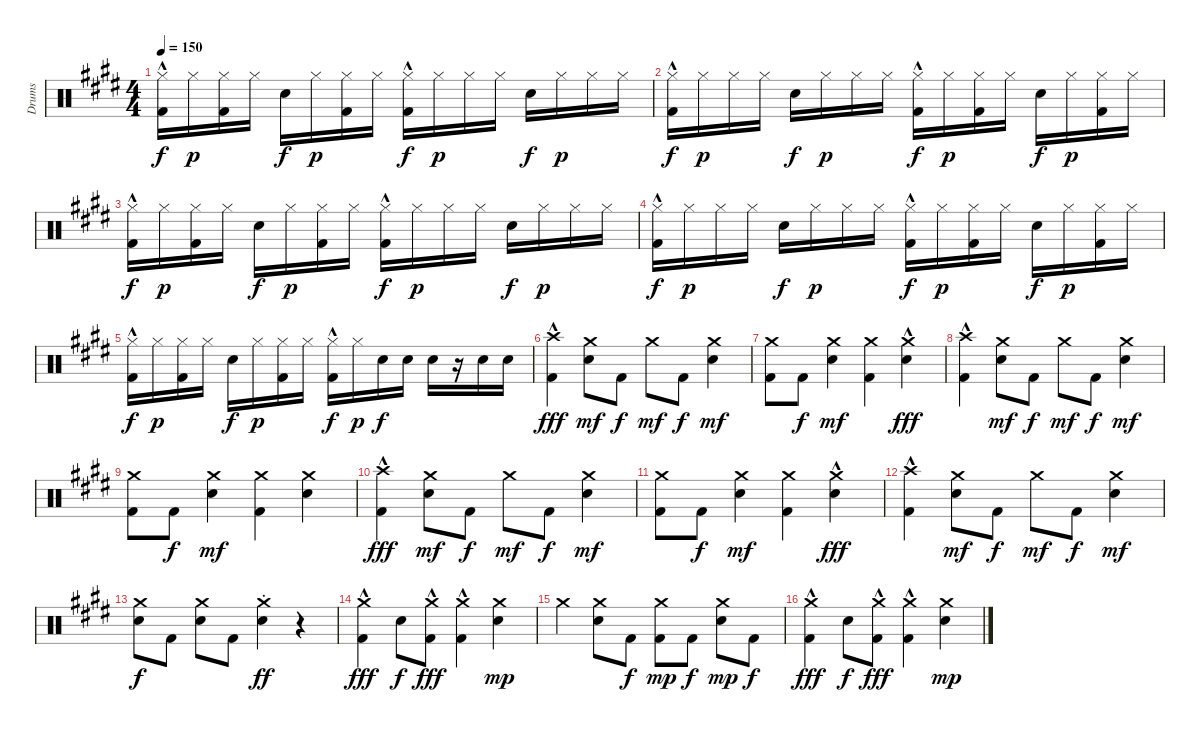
\track ("Drums" "Drums") {instrument percussion}
\staff {score}
\articulation defaults
\ts (4 4)
\tempo 150
\clef neutral
\ks e
("Hi-Hat (closed)"{hac} "Kick (hit) 2").16{dy f} "Hi-Hat (closed)".16{dy p} ("Hi-Hat (closed)" "Kick (hit) 2").16 "Hi-Hat (closed)".16 "Electric Snare (hit)".16{dy f} "Hi-Hat (closed)".16{dy p} ("Hi-Hat (closed)" "Kick (hit) 2").16 "Hi-Hat (closed)".16 ("Hi-Hat (closed)"{hac} "Kick (hit) 2").16{dy f} "Hi-Hat (closed)".16{dy p} "Hi-Hat (closed)".16 "Hi-Hat (closed)".16 "Electric Snare (hit)".16{dy f} "Hi-Hat (closed)".16{dy p} "Hi-Hat (closed)".16 "Hi-Hat (closed)".16 |
("Hi-Hat (closed)"{hac} "Kick (hit) 2").16{dy f} "Hi-Hat (closed)".16{dy p} "Hi-Hat (closed)".16 "Hi-Hat (closed)".16 "Electric Snare (hit)".16{dy f} "Hi-Hat (closed)".16{dy p} "Hi-Hat (closed)".16 "Hi-Hat (closed)".16 ("Hi-Hat (closed)"{hac} "Kick (hit) 2").16{dy f} "Hi-Hat (closed)".16{dy p} ("Hi-Hat (closed)" "Kick (hit) 2").16 "Hi-Hat (closed)".16 "Electric Snare (hit)".16{dy f} "Hi-Hat (closed)".16{dy p} ("Hi-Hat (closed)" "Kick (hit) 2").16 "Hi-Hat (closed)".16 |
("Hi-Hat (closed)"{hac} "Kick (hit) 2").16{dy f} "Hi-Hat (closed)".16{dy p} ("Hi-Hat (closed)" "Kick (hit) 2").16 "Hi-Hat (closed)".16 "Electric Snare (hit)".16{dy f} "Hi-Hat (closed)".16{dy p} ("Hi-Hat (closed)" "Kick (hit) 2").16 "Hi-Hat (closed)".16 ("Hi-Hat (closed)"{hac} "Kick (hit) 2").16{dy f} "Hi-Hat (closed)".16{dy p} "Hi-Hat (closed)".16 "Hi-Hat (closed)".16 "Electric Snare (hit)".16{dy f} "Hi-Hat (closed)".16{dy p} "Hi-Hat (closed)".16 "Hi-Hat (closed)".16 |
("Hi-Hat (closed)"{hac} "Kick (hit) 2").16{dy f} "Hi-Hat (closed)".16{dy p} "Hi-Hat (closed)".16 "Hi-Hat (closed)".16 "Electric Snare (hit)".16{dy f} "Hi-Hat (closed)".16{dy p} "Hi-Hat (closed)".16 "Hi-Hat (closed)".16 ("Hi-Hat (closed)"{hac} "Kick (hit) 2").16{dy f} "Hi-Hat (closed)".16{dy p} ("Hi-Hat (closed)" "Kick (hit) 2").16 "Hi-Hat (closed)".16 "Electric Snare (hit)".16{dy f} "Hi-Hat (closed)".16{dy p} ("Hi-Hat (closed)" "Kick (hit) 2").16 "Hi-Hat (closed)".16 |
("Hi-Hat (closed)"{hac} "Kick (hit) 2").16{dy f} "Hi-Hat (closed)".16{dy p} ("Hi-Hat (closed)" "Kick (hit) 2").16 "Hi-Hat (closed)".16 "Electric Snare (hit)".16{dy f} "Hi-Hat (closed)".16{dy p} ("Hi-Hat (closed)" "Kick (hit) 2").16 "Hi-Hat (closed)".16 ("Hi-Hat (closed)"{hac} "Kick (hit) 2").16{dy f} "Hi-Hat (closed)".16{dy p} "Electric Snare (hit)".16{dy f} "Electric Snare (hit)".16 "Electric Snare (hit)".16 r.16 "Electric Snare (hit)".16 "Electric Snare (hit)".16 |
("Crash high (hit)"{hac} "Kick (hit) 2").4{dy fff} ("Crash medium (hit)" "Electric Snare (hit)").8{dy mf} "Kick (hit) 2".8{dy f} "Crash medium (hit)".8{dy mf} "Kick (hit) 2".8{dy f} ("Crash medium (hit)" "Electric Snare (hit)").4{dy mf} |
("Crash medium (hit)" "Kick (hit) 2").8 "Kick (hit) 2".8{dy f} ("Crash medium (hit)" "Electric Snare (hit)").4{dy mf} ("Crash medium (hit)" "Kick (hit) 2").4 ("Crash medium (hit)"{hac} "Electric Snare (hit)").4{dy fff} |
("Crash high (hit)"{hac} "Kick (hit) 2").4 ("Crash medium (hit)" "Electric Snare (hit)").8{dy mf} "Kick (hit) 2".8{dy f} "Crash medium (hit)".8{dy mf} "Kick (hit) 2".8{dy f} ("Crash medium (hit)" "Electric Snare (hit)").4{dy mf} |
("Crash medium (hit)" "Kick (hit) 2").8 "Kick (hit) 2".8{dy f} ("Crash medium (hit)" "Electric Snare (hit)").4{dy mf} ("Crash medium (hit)" "Kick (hit) 2").4 ("Crash medium (hit)" "Electric Snare (hit)").4 |
("Crash high (hit)"{hac} "Kick (hit) 2").4{dy fff} ("Crash medium (hit)" "Electric Snare (hit)").8{dy mf} "Kick (hit) 2".8{dy f} "Crash medium (hit)".8{dy mf} "Kick (hit) 2".8{dy f} ("Crash medium (hit)" "Electric Snare (hit)").4{dy mf} |
("Crash medium (hit)" "Kick (hit) 2").8 "Kick (hit) 2".8{dy f} ("Crash medium (hit)" "Electric Snare (hit)").4{dy mf} ("Crash medium (hit)" "Kick (hit) 2").4 ("Crash medium (hit)"{hac} "Electric Snare (hit)").4{dy fff} |
("Crash high (hit)"{hac} "Kick (hit) 2").4 ("Crash medium (hit)" "Electric Snare (hit)").8{dy mf} "Kick (hit) 2".8{dy f} "Crash medium (hit)".8{dy mf} "Kick (hit) 2".8{dy f} ("Crash medium (hit)" "Electric Snare (hit)").4{dy mf} |
("Crash medium (hit)" "Electric Snare (hit)").8{dy f} "Kick (hit) 2".8 ("Crash medium (hit)" "Electric Snare (hit)").8 "Kick (hit) 2".8 ("Crash medium (hit)"{st} "Electric Snare (hit)"{st}).4{dy ff} r.4 |
("Crash medium (hit)"{hac} "Kick (hit) 2").4{dy fff} "Electric Snare (hit)".8{dy f} ("Crash medium (hit)"{hac} "Kick (hit) 2").8{dy fff} ("Crash medium (hit)"{hac} "Kick (hit) 2").4 ("Crash medium (hit)" "Electric Snare (hit)").4{dy mp} |
"Crash medium (hit)".4 ("Crash medium (hit)" "Electric Snare (hit)").8 "Kick (hit) 2".8{dy f} ("Crash medium (hit)" "Kick (hit) 2").8{dy mp} "Kick (hit) 2".8{dy f} ("Crash medium (hit)" "Electric Snare (hit)").8{dy mp} "Kick (hit) 2".8{dy f} |
("Crash medium (hit)"{hac} "Kick (hit) 2").4{dy fff} "Electric Snare (hit)".8{dy f} ("Crash medium (hit)"{hac} "Kick (hit) 2").8{dy fff} ("Crash medium (hit)"{hac} "Kick (hit) 2").4 ("Crash medium (hit)" "Electric Snare (hit)").4{dy mp}
